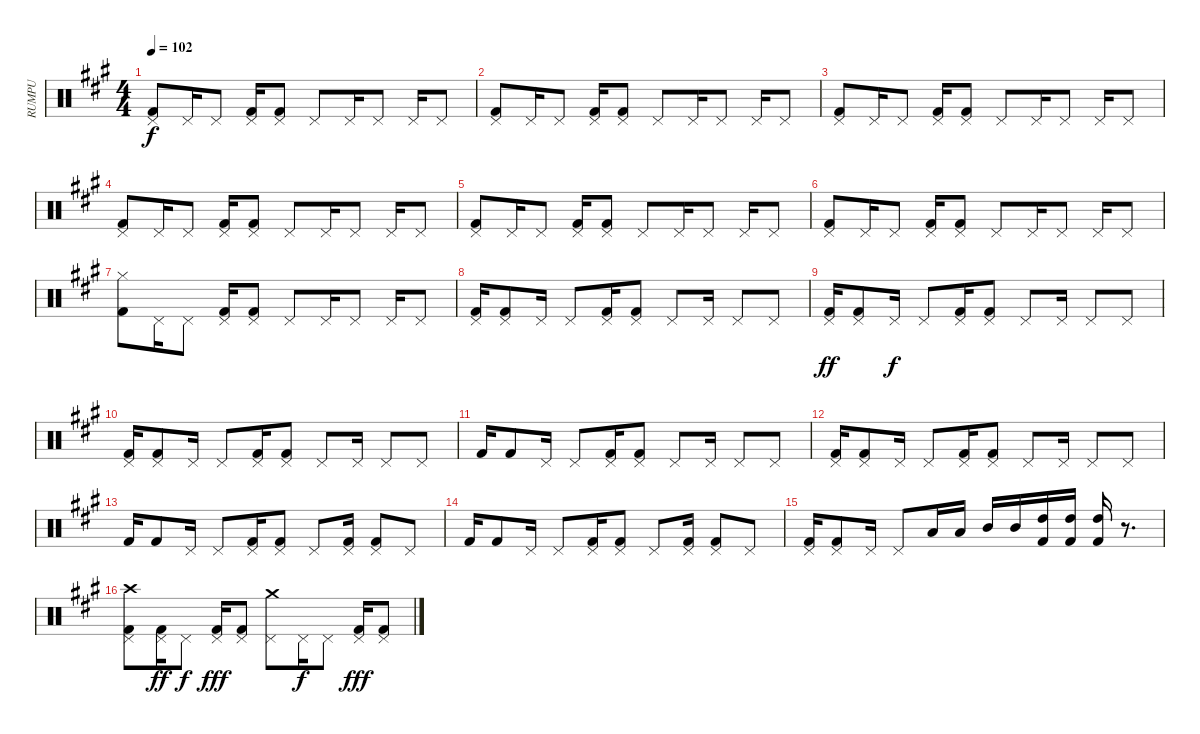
\track ("RUMPU" "RUMPU") {instrument percussion}
\staff {score}
\articulation defaults
\ts (4 4)
\tempo 102
\clef neutral
\ks a
("Kick (hit) 2" "Pedal Hi-Hat (hit)").8{dy f} "Pedal Hi-Hat (hit)".16 "Pedal Hi-Hat (hit)".8 ("Kick (hit) 2" "Pedal Hi-Hat (hit)").16 ("Kick (hit) 2" "Pedal Hi-Hat (hit)").8 "Pedal Hi-Hat (hit)".8 "Pedal Hi-Hat (hit)".16 "Pedal Hi-Hat (hit)".8 "Pedal Hi-Hat (hit)".16 "Pedal Hi-Hat (hit)".8 |
("Kick (hit) 2" "Pedal Hi-Hat (hit)").8 "Pedal Hi-Hat (hit)".16 "Pedal Hi-Hat (hit)".8 ("Kick (hit) 2" "Pedal Hi-Hat (hit)").16 ("Kick (hit) 2" "Pedal Hi-Hat (hit)").8 "Pedal Hi-Hat (hit)".8 "Pedal Hi-Hat (hit)".16 "Pedal Hi-Hat (hit)".8 "Pedal Hi-Hat (hit)".16 "Pedal Hi-Hat (hit)".8 |
("Kick (hit) 2" "Pedal Hi-Hat (hit)").8 "Pedal Hi-Hat (hit)".16 "Pedal Hi-Hat (hit)".8 ("Kick (hit) 2" "Pedal Hi-Hat (hit)").16 ("Kick (hit) 2" "Pedal Hi-Hat (hit)").8 "Pedal Hi-Hat (hit)".8 "Pedal Hi-Hat (hit)".16 "Pedal Hi-Hat (hit)".8 "Pedal Hi-Hat (hit)".16 "Pedal Hi-Hat (hit)".8 |
("Kick (hit) 2" "Pedal Hi-Hat (hit)").8 "Pedal Hi-Hat (hit)".16 "Pedal Hi-Hat (hit)".8 ("Kick (hit) 2" "Pedal Hi-Hat (hit)").16 ("Kick (hit) 2" "Pedal Hi-Hat (hit)").8 "Pedal Hi-Hat (hit)".8 "Pedal Hi-Hat (hit)".16 "Pedal Hi-Hat (hit)".8 "Pedal Hi-Hat (hit)".16 "Pedal Hi-Hat (hit)".8 |
("Kick (hit) 2" "Pedal Hi-Hat (hit)").8 "Pedal Hi-Hat (hit)".16 "Pedal Hi-Hat (hit)".8 ("Kick (hit) 2" "Pedal Hi-Hat (hit)").16 ("Kick (hit) 2" "Pedal Hi-Hat (hit)").8 "Pedal Hi-Hat (hit)".8 "Pedal Hi-Hat (hit)".16 "Pedal Hi-Hat (hit)".8 "Pedal Hi-Hat (hit)".16 "Pedal Hi-Hat (hit)".8 |
("Kick (hit) 2" "Pedal Hi-Hat (hit)").8 "Pedal Hi-Hat (hit)".16 "Pedal Hi-Hat (hit)".8 ("Kick (hit) 2" "Pedal Hi-Hat (hit)").16 ("Kick (hit) 2" "Pedal Hi-Hat (hit)").8 "Pedal Hi-Hat (hit)".8 "Pedal Hi-Hat (hit)".16 "Pedal Hi-Hat (hit)".8 "Pedal Hi-Hat (hit)".16 "Pedal Hi-Hat (hit)".8 |
("Kick (hit) 2" "Hi-Hat (closed)").8 "Pedal Hi-Hat (hit)".16 "Pedal Hi-Hat (hit)".8 ("Kick (hit) 2" "Pedal Hi-Hat (hit)").16 ("Kick (hit) 2" "Pedal Hi-Hat (hit)").8 "Pedal Hi-Hat (hit)".8 "Pedal Hi-Hat (hit)".16 "Pedal Hi-Hat (hit)".8 "Pedal Hi-Hat (hit)".16 "Pedal Hi-Hat (hit)".8 |
("Kick (hit) 2" "Pedal Hi-Hat (hit)").16 ("Kick (hit) 2" "Pedal Hi-Hat (hit)").8 "Pedal Hi-Hat (hit)".16 "Pedal Hi-Hat (hit)".8 ("Kick (hit) 2" "Pedal Hi-Hat (hit)").16 ("Kick (hit) 2" "Pedal Hi-Hat (hit)").8 "Pedal Hi-Hat (hit)".8 "Pedal Hi-Hat (hit)".16 "Pedal Hi-Hat (hit)".8 "Pedal Hi-Hat (hit)".8 |
("Kick (hit) 2" "Pedal Hi-Hat (hit)").16{dy ff} ("Kick (hit) 2" "Pedal Hi-Hat (hit)").8 "Pedal Hi-Hat (hit)".16{dy f} "Pedal Hi-Hat (hit)".8 ("Kick (hit) 2" "Pedal Hi-Hat (hit)").16 ("Kick (hit) 2" "Pedal Hi-Hat (hit)").8 "Pedal Hi-Hat (hit)".8 "Pedal Hi-Hat (hit)".16 "Pedal Hi-Hat (hit)".8 "Pedal Hi-Hat (hit)".8 |
("Kick (hit) 2" "Pedal Hi-Hat (hit)").16 ("Kick (hit) 2" "Pedal Hi-Hat (hit)").8 "Pedal Hi-Hat (hit)".16 "Pedal Hi-Hat (hit)".8 ("Kick (hit) 2" "Pedal Hi-Hat (hit)").16 ("Kick (hit) 2" "Pedal Hi-Hat (hit)").8 "Pedal Hi-Hat (hit)".8 "Pedal Hi-Hat (hit)".16 "Pedal Hi-Hat (hit)".8 "Pedal Hi-Hat (hit)".8 |
"Kick (hit) 2".16 "Kick (hit) 2".8 "Pedal Hi-Hat (hit)".16 "Pedal Hi-Hat (hit)".8 ("Kick (hit) 2" "Pedal Hi-Hat (hit)").16 ("Kick (hit) 2" "Pedal Hi-Hat (hit)").8 "Pedal Hi-Hat (hit)".8 "Pedal Hi-Hat (hit)".16 "Pedal Hi-Hat (hit)".8 "Pedal Hi-Hat (hit)".8 |
("Kick (hit) 2" "Pedal Hi-Hat (hit)").16 ("Kick (hit) 2" "Pedal Hi-Hat (hit)").8 "Pedal Hi-Hat (hit)".16 "Pedal Hi-Hat (hit)".8 ("Kick (hit) 2" "Pedal Hi-Hat (hit)").16 ("Kick (hit) 2" "Pedal Hi-Hat (hit)").8 "Pedal Hi-Hat (hit)".8 "Pedal Hi-Hat (hit)".16 "Pedal Hi-Hat (hit)".8 "Pedal Hi-Hat (hit)".8 |
"Kick (hit) 2".16 "Kick (hit) 2".8 "Pedal Hi-Hat (hit)".16 "Pedal Hi-Hat (hit)".8 ("Kick (hit) 2" "Pedal Hi-Hat (hit)").16 ("Kick (hit) 2" "Pedal Hi-Hat (hit)").8 "Pedal Hi-Hat (hit)".8 ("Kick (hit) 2" "Pedal Hi-Hat (hit)").16 ("Kick (hit) 2" "Pedal Hi-Hat (hit)").8 "Pedal Hi-Hat (hit)".8 |
"Kick (hit) 2".16 "Kick (hit) 2".8 "Pedal Hi-Hat (hit)".16 "Pedal Hi-Hat (hit)".8 ("Kick (hit) 2" "Pedal Hi-Hat (hit)").16 ("Kick (hit) 2" "Pedal Hi-Hat (hit)").8 "Pedal Hi-Hat (hit)".8 ("Kick (hit) 2" "Pedal Hi-Hat (hit)").16 ("Kick (hit) 2" "Pedal Hi-Hat (hit)").8 "Pedal Hi-Hat (hit)".8 |
("Kick (hit) 2" "Pedal Hi-Hat (hit)").16 ("Kick (hit) 2" "Pedal Hi-Hat (hit)").8 "Pedal Hi-Hat (hit)".16 "Pedal Hi-Hat (hit)".8 "Low Tom (hit)".16 "Low Tom (hit)".16 "Mid Tom (hit)".16 "Mid Tom (hit)".16 ("Kick (hit) 2" "High Tom (hit)").16 ("Kick (hit) 2" "High Tom (hit)").16 ("Kick (hit) 2" "High Tom (hit)").16 r.8{d} |
("Crash high (hit)" "Kick (hit) 2" "Pedal Hi-Hat (hit)").8 ("Kick (hit) 2" "Pedal Hi-Hat (hit)").16{dy ff} "Pedal Hi-Hat (hit)".8{dy f} ("Kick (hit) 2" "Pedal Hi-Hat (hit)").16{dy fff} ("Kick (hit) 2" "Pedal Hi-Hat (hit)").8 ("Crash medium (hit)" "Pedal Hi-Hat (hit)").8 "Pedal Hi-Hat (hit)".16{dy f} "Pedal Hi-Hat (hit)".8 ("Kick (hit) 2" "Pedal Hi-Hat (hit)").16{dy fff} ("Kick (hit) 2" "Pedal Hi-Hat (hit)").8
